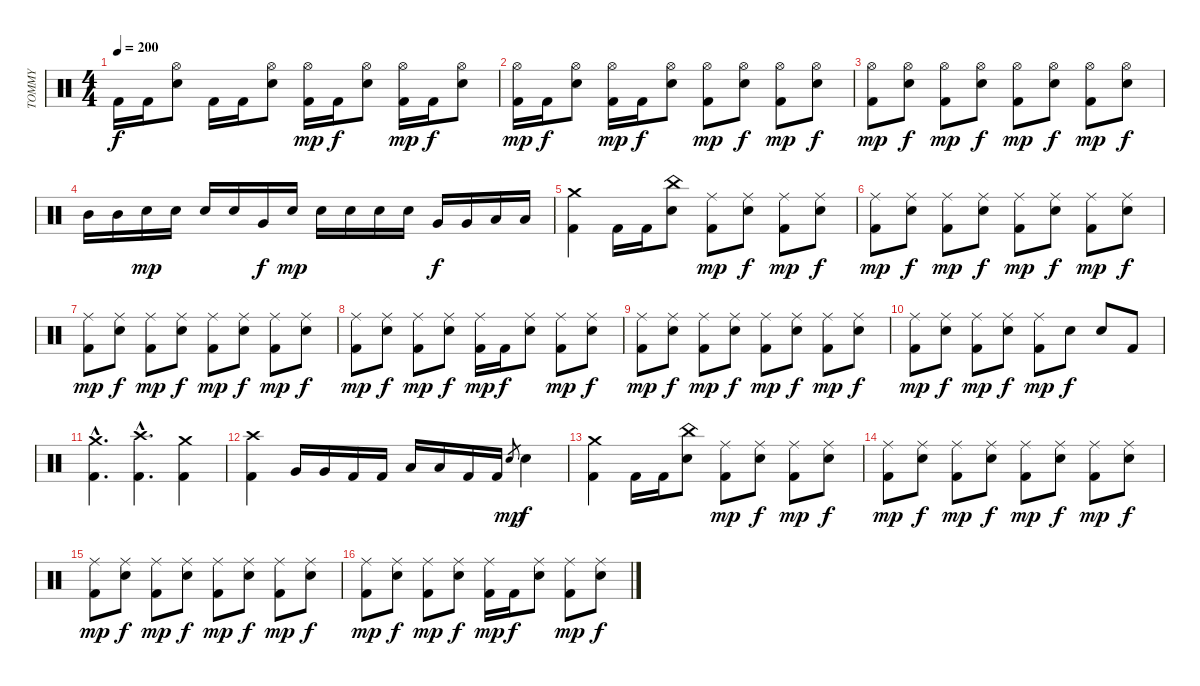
\track ("TOMMY" "TOMMY") {instrument percussion}
\staff {score}
\articulation defaults
\ts (4 4)
\tempo 200
\clef neutral
\ks c "Kick (hit) 2".16{dy f} "Kick (hit) 2".16
("Snare (hit) 2" "Hi-Hat (open)").8 "Kick (hit) 2".16 "Kick (hit) 2".16 ("Snare (hit) 2" "Hi-Hat (open)").8 ("Kick (hit) 2" "Hi-Hat (open)").16{dy mp} "Kick (hit) 2".16{dy f} ("Snare (hit) 2" "Hi-Hat (open)").8 ("Kick (hit) 2" "Hi-Hat (open)").16{dy mp} "Kick (hit) 2".16{dy f} ("Snare (hit) 2" "Hi-Hat (open)").8 |
("Kick (hit) 2" "Hi-Hat (open)").16{dy mp} "Kick (hit) 2".16{dy f} ("Snare (hit) 2" "Hi-Hat (open)").8 ("Kick (hit) 2" "Hi-Hat (open)").16{dy mp} "Kick (hit) 2".16{dy f} ("Snare (hit) 2" "Hi-Hat (open)").8 ("Kick (hit) 2" "Hi-Hat (open)").8{dy mp} ("Snare (hit) 2" "Hi-Hat (open)").8{dy f} ("Kick (hit) 2" "Hi-Hat (open)").8{dy mp} ("Snare (hit) 2" "Hi-Hat (open)").8{dy f} |
("Kick (hit) 2" "Hi-Hat (open)").8{dy mp} ("Snare (hit) 2" "Hi-Hat (open)").8{dy f} ("Kick (hit) 2" "Hi-Hat (open)").8{dy mp} ("Snare (hit) 2" "Hi-Hat (open)").8{dy f} ("Kick (hit) 2" "Hi-Hat (open)").8{dy mp} ("Snare (hit) 2" "Hi-Hat (open)").8{dy f} ("Kick (hit) 2" "Hi-Hat (open)").8{dy mp} ("Snare (hit) 2" "Hi-Hat (open)").8{dy f} |
"Mid Tom (hit)".16 "Mid Tom (hit)".16 "Snare (hit) 2".16{dy mp} "Snare (hit) 2".16 "Snare (hit) 2".16 "Snare (hit) 2".16 "Very Low Tom (hit)".16{dy f} "Snare (hit) 2".16{dy mp} "Snare (hit) 2".16 "Snare (hit) 2".16 "Snare (hit) 2".16 "Snare (hit) 2".16 "Very Low Tom (hit)".16{dy f} "Very Low Tom (hit)".16 "Low Floor Tom (hit)".16 "Low Floor Tom (hit)".16 |
("Kick (hit) 2" "Crash medium (hit)").4 "Kick (hit) 2".16 "Kick (hit) 2".16 ("Snare (hit) 2" "China (hit)").8 ("Kick (hit) 2" "Ride (middle)").8{dy mp} ("Snare (hit) 2" "Ride (middle)").8{dy f} ("Kick (hit) 2" "Ride (middle)").8{dy mp} ("Snare (hit) 2" "Ride (middle)").8{dy f} |
("Kick (hit) 2" "Ride (middle)").8{dy mp} ("Snare (hit) 2" "Ride (middle)").8{dy f} ("Kick (hit) 2" "Ride (middle)").8{dy mp} ("Snare (hit) 2" "Ride (middle)").8{dy f} ("Kick (hit) 2" "Ride (middle)").8{dy mp} ("Snare (hit) 2" "Ride (middle)").8{dy f} ("Kick (hit) 2" "Ride (middle)").8{dy mp} ("Snare (hit) 2" "Ride (middle)").8{dy f} |
("Kick (hit) 2" "Ride (middle)").8{dy mp} ("Snare (hit) 2" "Ride (middle)").8{dy f} ("Kick (hit) 2" "Ride (middle)").8{dy mp} ("Snare (hit) 2" "Ride (middle)").8{dy f} ("Kick (hit) 2" "Ride (middle)").8{dy mp} ("Snare (hit) 2" "Ride (middle)").8{dy f} ("Kick (hit) 2" "Ride (middle)").8{dy mp} ("Snare (hit) 2" "Ride (middle)").8{dy f} |
("Kick (hit) 2" "Ride (middle)").8{dy mp} ("Snare (hit) 2" "Ride (middle)").8{dy f} ("Kick (hit) 2" "Ride (middle)").8{dy mp} ("Snare (hit) 2" "Ride (middle)").8{dy f} ("Kick (hit) 2" "Ride (middle)").16{dy mp} "Kick (hit) 2".16{dy f} ("Snare (hit) 2" "Ride (middle)").8 ("Kick (hit) 2" "Ride (middle)").8{dy mp} ("Snare (hit) 2" "Ride (middle)").8{dy f} |
("Kick (hit) 2" "Ride (middle)").8{dy mp} ("Snare (hit) 2" "Ride (middle)").8{dy f} ("Kick (hit) 2" "Ride (middle)").8{dy mp} ("Snare (hit) 2" "Ride (middle)").8{dy f} ("Kick (hit) 2" "Ride (middle)").8{dy mp} ("Snare (hit) 2" "Ride (middle)").8{dy f} ("Kick (hit) 2" "Ride (middle)").8{dy mp} ("Snare (hit) 2" "Ride (middle)").8{dy f} |
("Kick (hit) 2" "Ride (middle)").8{dy mp} ("Snare (hit) 2" "Ride (middle)").8{dy f} ("Kick (hit) 2" "Ride (middle)").8{dy mp} ("Snare (hit) 2" "Ride (middle)").8{dy f} ("Kick (hit) 2" "Ride (middle)").8{dy mp} "Snare (hit) 2".8{dy f} "Snare (hit) 2".8 "Kick (hit) 2".8 |
("Kick (hit) 2"{hac} "Crash medium (hit)"{hac}).4{d} ("Kick (hit) 2"{hac} "Crash high (hit)"{hac}).4{d} ("Kick (hit) 2" "Crash medium (hit)").4 |
("Kick (hit) 2" "Crash high (hit)").4 "Very Low Tom (hit)".16 "Very Low Tom (hit)".16 "Kick (hit) 2".16 "Kick (hit) 2".16 "Low Floor Tom (hit)".16 "Low Floor Tom (hit)".16 "Kick (hit) 2".16 "Kick (hit) 2".16 "Snare (hit) 2".8{gr dy mp} "Snare (hit) 2".4{dy f} |
("Kick (hit) 2" "Crash medium (hit)").4 "Kick (hit) 2".16 "Kick (hit) 2".16 ("Snare (hit) 2" "China (hit)").8 ("Kick (hit) 2" "Ride (middle)").8{dy mp} ("Snare (hit) 2" "Ride (middle)").8{dy f} ("Kick (hit) 2" "Ride (middle)").8{dy mp} ("Snare (hit) 2" "Ride (middle)").8{dy f} |
("Kick (hit) 2" "Ride (middle)").8{dy mp} ("Snare (hit) 2" "Ride (middle)").8{dy f} ("Kick (hit) 2" "Ride (middle)").8{dy mp} ("Snare (hit) 2" "Ride (middle)").8{dy f} ("Kick (hit) 2" "Ride (middle)").8{dy mp} ("Snare (hit) 2" "Ride (middle)").8{dy f} ("Kick (hit) 2" "Ride (middle)").8{dy mp} ("Snare (hit) 2" "Ride (middle)").8{dy f} |
("Kick (hit) 2" "Ride (middle)").8{dy mp} ("Snare (hit) 2" "Ride (middle)").8{dy f} ("Kick (hit) 2" "Ride (middle)").8{dy mp} ("Snare (hit) 2" "Ride (middle)").8{dy f} ("Kick (hit) 2" "Ride (middle)").8{dy mp} ("Snare (hit) 2" "Ride (middle)").8{dy f} ("Kick (hit) 2" "Ride (middle)").8{dy mp} ("Snare (hit) 2" "Ride (middle)").8{dy f} |
("Kick (hit) 2" "Ride (middle)").8{dy mp} ("Snare (hit) 2" "Ride (middle)").8{dy f} ("Kick (hit) 2" "Ride (middle)").8{dy mp} ("Snare (hit) 2" "Ride (middle)").8{dy f} ("Kick (hit) 2" "Ride (middle)").16{dy mp} "Kick (hit) 2".16{dy f} ("Snare (hit) 2" "Ride (middle)").8 ("Kick (hit) 2" "Ride (middle)").8{dy mp} ("Snare (hit) 2" "Ride (middle)").8{dy f}
